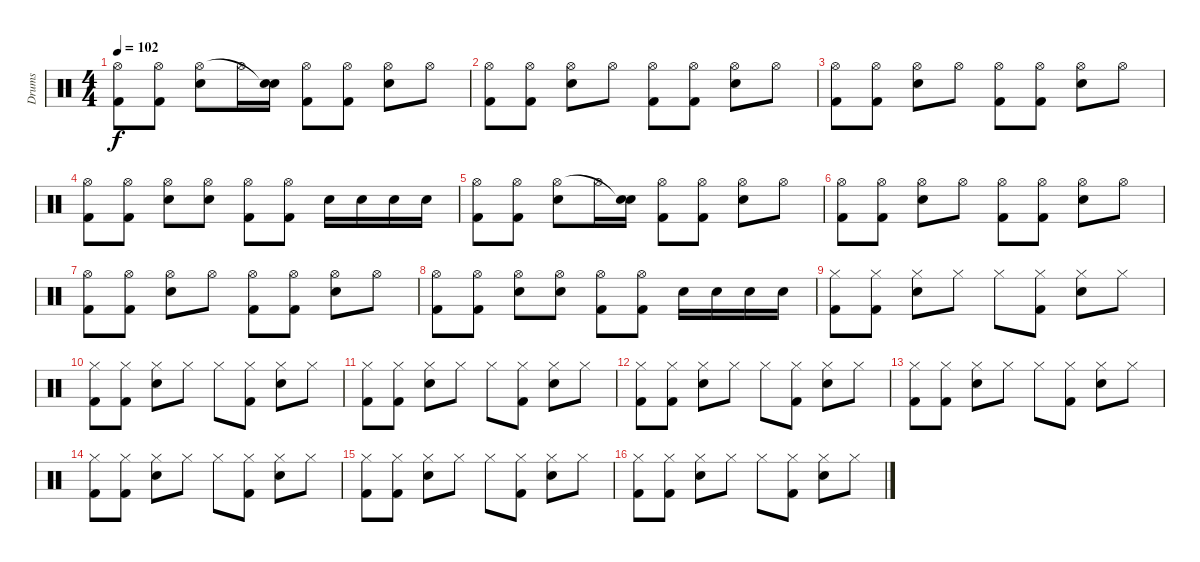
\track ("Drums" "Drums") {instrument percussion}
\staff {score}
\articulation defaults
\ts (4 4)
\tempo 102
\clef neutral
\ks c
("Kick (hit) 2" "Hi-Hat (open)").8{dy f} ("Kick (hit) 2" "Hi-Hat (open)").8 ("Electric Snare (hit)" "Hi-Hat (open)").8 "Hi-Hat (open)".16 ("Electric Snare (hit)" "Snare (hit)"{t}).16 ("Kick (hit) 2" "Hi-Hat (open)").8 ("Kick (hit) 2" "Hi-Hat (open)").8 ("Electric Snare (hit)" "Hi-Hat (open)").8 "Hi-Hat (open)".8 |
("Kick (hit) 2" "Hi-Hat (open)").8 ("Kick (hit) 2" "Hi-Hat (open)").8 ("Electric Snare (hit)" "Hi-Hat (open)").8 "Hi-Hat (open)".8 ("Kick (hit) 2" "Hi-Hat (open)").8 ("Kick (hit) 2" "Hi-Hat (open)").8 ("Electric Snare (hit)" "Hi-Hat (open)").8 "Hi-Hat (open)".8 |
("Kick (hit) 2" "Hi-Hat (open)").8 ("Kick (hit) 2" "Hi-Hat (open)").8 ("Electric Snare (hit)" "Hi-Hat (open)").8 "Hi-Hat (open)".8 ("Kick (hit) 2" "Hi-Hat (open)").8 ("Kick (hit) 2" "Hi-Hat (open)").8 ("Electric Snare (hit)" "Hi-Hat (open)").8 "Hi-Hat (open)".8 |
("Kick (hit) 2" "Hi-Hat (open)").8 ("Kick (hit) 2" "Hi-Hat (open)").8 ("Electric Snare (hit)" "Hi-Hat (open)").8 ("Electric Snare (hit)" "Hi-Hat (open)").8 ("Kick (hit) 2" "Hi-Hat (open)").8 ("Kick (hit) 2" "Hi-Hat (open)").8 "Electric Snare (hit)".16 "Electric Snare (hit)".16 "Electric Snare (hit)".16 "Electric Snare (hit)".16 |
("Kick (hit) 2" "Hi-Hat (open)").8 ("Kick (hit) 2" "Hi-Hat (open)").8 ("Electric Snare (hit)" "Hi-Hat (open)").8 "Hi-Hat (open)".16 ("Electric Snare (hit)" "Snare (hit)"{t}).16 ("Kick (hit) 2" "Hi-Hat (open)").8 ("Kick (hit) 2" "Hi-Hat (open)").8 ("Electric Snare (hit)" "Hi-Hat (open)").8 "Hi-Hat (open)".8 |
("Kick (hit) 2" "Hi-Hat (open)").8 ("Kick (hit) 2" "Hi-Hat (open)").8 ("Electric Snare (hit)" "Hi-Hat (open)").8 "Hi-Hat (open)".8 ("Kick (hit) 2" "Hi-Hat (open)").8 ("Kick (hit) 2" "Hi-Hat (open)").8 ("Electric Snare (hit)" "Hi-Hat (open)").8 "Hi-Hat (open)".8 |
("Kick (hit) 2" "Hi-Hat (open)").8 ("Kick (hit) 2" "Hi-Hat (open)").8 ("Electric Snare (hit)" "Hi-Hat (open)").8 "Hi-Hat (open)".8 ("Kick (hit) 2" "Hi-Hat (open)").8 ("Kick (hit) 2" "Hi-Hat (open)").8 ("Electric Snare (hit)" "Hi-Hat (open)").8 "Hi-Hat (open)".8 |
("Kick (hit) 2" "Hi-Hat (open)").8 ("Kick (hit) 2" "Hi-Hat (open)").8 ("Electric Snare (hit)" "Hi-Hat (open)").8 ("Electric Snare (hit)" "Hi-Hat (open)").8 ("Kick (hit) 2" "Hi-Hat (open)").8 ("Kick (hit) 2" "Hi-Hat (open)").8 "Electric Snare (hit)".16 "Electric Snare (hit)".16 "Electric Snare (hit)".16 "Electric Snare (hit)".16 |
("Kick (hit) 2" "Hi-Hat (closed)").8 ("Kick (hit) 2" "Hi-Hat (closed)").8 ("Electric Snare (hit)" "Hi-Hat (closed)").8 "Hi-Hat (closed)".8 "Hi-Hat (closed)".8 ("Kick (hit) 2" "Hi-Hat (closed)").8 ("Electric Snare (hit)" "Hi-Hat (closed)").8 "Hi-Hat (closed)".8 |
("Kick (hit) 2" "Hi-Hat (closed)").8 ("Kick (hit) 2" "Hi-Hat (closed)").8 ("Electric Snare (hit)" "Hi-Hat (closed)").8 "Hi-Hat (closed)".8 "Hi-Hat (closed)".8 ("Kick (hit) 2" "Hi-Hat (closed)").8 ("Electric Snare (hit)" "Hi-Hat (closed)").8 "Hi-Hat (closed)".8 |
("Kick (hit) 2" "Hi-Hat (closed)").8 ("Kick (hit) 2" "Hi-Hat (closed)").8 ("Electric Snare (hit)" "Hi-Hat (closed)").8 "Hi-Hat (closed)".8 "Hi-Hat (closed)".8 ("Kick (hit) 2" "Hi-Hat (closed)").8 ("Electric Snare (hit)" "Hi-Hat (closed)").8 "Hi-Hat (closed)".8 |
("Kick (hit) 2" "Hi-Hat (closed)").8 ("Kick (hit) 2" "Hi-Hat (closed)").8 ("Electric Snare (hit)" "Hi-Hat (closed)").8 "Hi-Hat (closed)".8 "Hi-Hat (closed)".8 ("Kick (hit) 2" "Hi-Hat (closed)").8 ("Electric Snare (hit)" "Hi-Hat (closed)").8 "Hi-Hat (closed)".8 |
("Kick (hit) 2" "Hi-Hat (closed)").8 ("Kick (hit) 2" "Hi-Hat (closed)").8 ("Electric Snare (hit)" "Hi-Hat (closed)").8 "Hi-Hat (closed)".8 "Hi-Hat (closed)".8 ("Kick (hit) 2" "Hi-Hat (closed)").8 ("Electric Snare (hit)" "Hi-Hat (closed)").8 "Hi-Hat (closed)".8 |
("Kick (hit) 2" "Hi-Hat (closed)").8 ("Kick (hit) 2" "Hi-Hat (closed)").8 ("Electric Snare (hit)" "Hi-Hat (closed)").8 "Hi-Hat (closed)".8 "Hi-Hat (closed)".8 ("Kick (hit) 2" "Hi-Hat (closed)").8 ("Electric Snare (hit)" "Hi-Hat (closed)").8 "Hi-Hat (closed)".8 |
("Kick (hit) 2" "Hi-Hat (closed)").8 ("Kick (hit) 2" "Hi-Hat (closed)").8 ("Electric Snare (hit)" "Hi-Hat (closed)").8 "Hi-Hat (closed)".8 "Hi-Hat (closed)".8 ("Kick (hit) 2" "Hi-Hat (closed)").8 ("Electric Snare (hit)" "Hi-Hat (closed)").8 "Hi-Hat (closed)".8 |
("Kick (hit) 2" "Hi-Hat (closed)").8 ("Kick (hit) 2" "Hi-Hat (closed)").8 ("Electric Snare (hit)" "Hi-Hat (closed)").8 "Hi-Hat (closed)".8 "Hi-Hat (closed)".8 ("Kick (hit) 2" "Hi-Hat (closed)").8 ("Electric Snare (hit)" "Hi-Hat (closed)").8 "Hi-Hat (closed)".8
